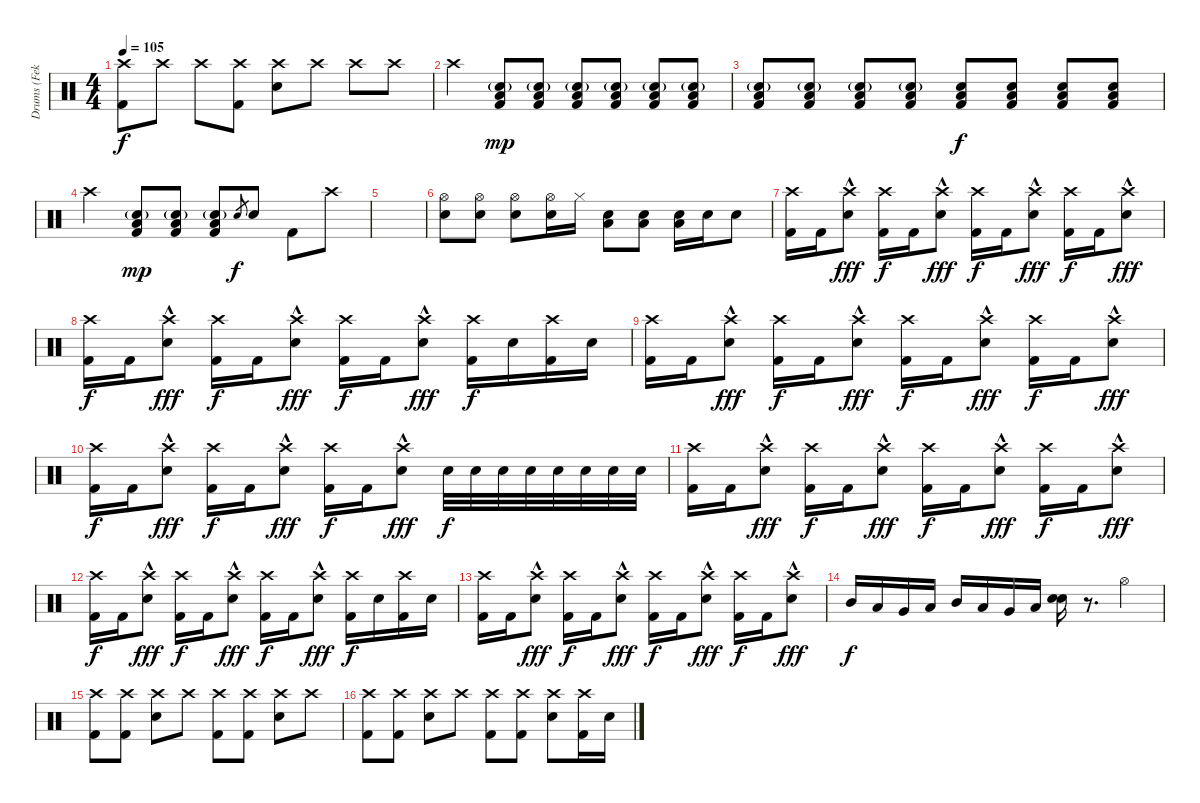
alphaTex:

\track ("Drums (Fekete 'Feka' Balázs)" "Drums (Fek") {instrument percussion}
\staff {score}
\articulation defaults
\ts (4 4)
\tempo 105
\clef neutral
\ks c
("Crash high (hit)" "Kick (hit) 2").8{dy f} "Crash high (hit)".8 "Crash high (hit)".8 ("Crash high (hit)" "Kick (hit) 2").8 ("Crash high (hit)" "Snare (hit) 2").8 "Crash high (hit)".8 "Crash high (hit)".8 "Crash high (hit)".8 |
"Crash high (hit)".4 ("Low Tom (hit)" "Snare (hit) 2"{g} "Kick (hit) 2").8{dy mp} ("Low Tom (hit)" "Snare (hit) 2"{g} "Kick (hit) 2").8 ("Low Tom (hit)" "Snare (hit) 2"{g} "Kick (hit) 2").8 ("Low Tom (hit)" "Snare (hit) 2"{g} "Kick (hit) 2").8 ("Low Tom (hit)" "Snare (hit) 2"{g} "Kick (hit) 2").8 ("Low Tom (hit)" "Snare (hit) 2"{g} "Kick (hit) 2").8 |
("Low Tom (hit)" "Snare (hit) 2"{g} "Kick (hit) 2").8 ("Low Tom (hit)" "Snare (hit) 2"{g} "Kick (hit) 2").8 ("Low Tom (hit)" "Snare (hit) 2"{g} "Kick (hit) 2").8 ("Low Tom (hit)" "Snare (hit) 2"{g} "Kick (hit) 2").8 ("Low Tom (hit)" "Snare (hit) 2" "Kick (hit) 2").8{dy f} ("Low Tom (hit)" "Snare (hit) 2" "Kick (hit) 2").8 ("Low Tom (hit)" "Snare (hit) 2" "Kick (hit) 2").8 ("Low Tom (hit)" "Snare (hit) 2" "Kick (hit) 2").8 |
"Crash high (hit)".4 ("Low Tom (hit)" "Snare (hit) 2"{g} "Kick (hit) 2").8{dy mp} ("Low Tom (hit)" "Snare (hit) 2"{g} "Kick (hit) 2").8 ("Low Tom (hit)" "Snare (hit) 2"{g} "Kick (hit) 2").8 "Snare (hit) 2".8{gr dy f} "Snare (hit) 2".8 "Kick (hit) 2".8 "Crash high (hit)".8 |
|
("Hi-Hat (open)" "Snare (hit) 2").8 ("Hi-Hat (open)" "Snare (hit) 2").8 ("Hi-Hat (open)" "Snare (hit) 2").8 ("Hi-Hat (open)" "Snare (hit) 2").16 "Hi-Hat (closed)".16 ("Low Tom (hit)" "Snare (hit) 2").8 ("Low Tom (hit)" "Snare (hit) 2").8 ("Low Tom (hit)" "Snare (hit) 2").16 "Snare (hit) 2".16 "Snare (hit) 2".8 |
("Crash high (hit)" "Kick (hit) 2").16 "Kick (hit) 2".16 ("Crash high (hit)" "Snare (hit) 2"{hac}).8{dy fff} ("Crash high (hit)" "Kick (hit) 2").16{dy f} "Kick (hit) 2".16 ("Crash high (hit)" "Snare (hit) 2"{hac}).8{dy fff} ("Crash high (hit)" "Kick (hit) 2").16{dy f} "Kick (hit) 2".16 ("Crash high (hit)" "Snare (hit) 2"{hac}).8{dy fff} ("Crash high (hit)" "Kick (hit) 2").16{dy f} "Kick (hit) 2".16 ("Crash high (hit)" "Snare (hit) 2"{hac}).8{dy fff} |
("Crash high (hit)" "Kick (hit) 2").16{dy f} "Kick (hit) 2".16 ("Crash high (hit)" "Snare (hit) 2"{hac}).8{dy fff} ("Crash high (hit)" "Kick (hit) 2").16{dy f} "Kick (hit) 2".16 ("Crash high (hit)" "Snare (hit) 2"{hac}).8{dy fff} ("Crash high (hit)" "Kick (hit) 2").16{dy f} "Kick (hit) 2".16 ("Crash high (hit)" "Snare (hit) 2"{hac}).8{dy fff} ("Crash high (hit)" "Kick (hit) 2").16{dy f} "Snare (hit) 2".16 ("Crash high (hit)" "Kick (hit) 2").16 "Snare (hit) 2".16 |
("Crash high (hit)" "Kick (hit) 2").16 "Kick (hit) 2".16 ("Crash high (hit)" "Snare (hit) 2"{hac}).8{dy fff} ("Crash high (hit)" "Kick (hit) 2").16{dy f} "Kick (hit) 2".16 ("Crash high (hit)" "Snare (hit) 2"{hac}).8{dy fff} ("Crash high (hit)" "Kick (hit) 2").16{dy f} "Kick (hit) 2".16 ("Crash high (hit)" "Snare (hit) 2"{hac}).8{dy fff} ("Crash high (hit)" "Kick (hit) 2").16{dy f} "Kick (hit) 2".16 ("Crash high (hit)" "Snare (hit) 2"{hac}).8{dy fff} |
("Crash high (hit)" "Kick (hit) 2").16{dy f} "Kick (hit) 2".16 ("Crash high (hit)" "Snare (hit) 2"{hac}).8{dy fff} ("Crash high (hit)" "Kick (hit) 2").16{dy f} "Kick (hit) 2".16 ("Crash high (hit)" "Snare (hit) 2"{hac}).8{dy fff} ("Crash high (hit)" "Kick (hit) 2").16{dy f} "Kick (hit) 2".16 ("Crash high (hit)" "Snare (hit) 2"{hac}).8{dy fff} "Snare (hit) 2".32{dy f} "Snare (hit) 2".32 "Snare (hit) 2".32 "Snare (hit) 2".32 "Snare (hit) 2".32 "Snare (hit) 2".32 "Snare (hit) 2".32 "Snare (hit) 2".32 |
("Crash high (hit)" "Kick (hit) 2").16 "Kick (hit) 2".16 ("Crash high (hit)" "Snare (hit) 2"{hac}).8{dy fff} ("Crash high (hit)" "Kick (hit) 2").16{dy f} "Kick (hit) 2".16 ("Crash high (hit)" "Snare (hit) 2"{hac}).8{dy fff} ("Crash high (hit)" "Kick (hit) 2").16{dy f} "Kick (hit) 2".16 ("Crash high (hit)" "Snare (hit) 2"{hac}).8{dy fff} ("Crash high (hit)" "Kick (hit) 2").16{dy f} "Kick (hit) 2".16 ("Crash high (hit)" "Snare (hit) 2"{hac}).8{dy fff} |
("Crash high (hit)" "Kick (hit) 2").16{dy f} "Kick (hit) 2".16 ("Crash high (hit)" "Snare (hit) 2"{hac}).8{dy fff} ("Crash high (hit)" "Kick (hit) 2").16{dy f} "Kick (hit) 2".16 ("Crash high (hit)" "Snare (hit) 2"{hac}).8{dy fff} ("Crash high (hit)" "Kick (hit) 2").16{dy f} "Kick (hit) 2".16 ("Crash high (hit)" "Snare (hit) 2"{hac}).8{dy fff} ("Crash high (hit)" "Kick (hit) 2").16{dy f} "Snare (hit) 2".16 ("Crash high (hit)" "Kick (hit) 2").16 "Snare (hit) 2".16 |
("Crash high (hit)" "Kick (hit) 2").16 "Kick (hit) 2".16 ("Crash high (hit)" "Snare (hit) 2"{hac}).8{dy fff} ("Crash high (hit)" "Kick (hit) 2").16{dy f} "Kick (hit) 2".16 ("Crash high (hit)" "Snare (hit) 2"{hac}).8{dy fff} ("Crash high (hit)" "Kick (hit) 2").16{dy f} "Kick (hit) 2".16 ("Crash high (hit)" "Snare (hit) 2"{hac}).8{dy fff} ("Crash high (hit)" "Kick (hit) 2").16{dy f} "Kick (hit) 2".16 ("Crash high (hit)" "Snare (hit) 2"{hac}).8{dy fff} |
"Mid Tom (hit)".16{dy f} "Low Tom (hit)".16 "Very Low Tom (hit)".16 "Low Floor Tom (hit)".16 "Mid Tom (hit)".16 "Low Tom (hit)".16 "Very Low Tom (hit)".16 "Low Floor Tom (hit)".16 ("Snare (hit) 2" "Snare (hit) 2").16 r.8{d} "Hi-Hat (open)".4 |
("Crash high (hit)" "Kick (hit) 2").8 ("Crash high (hit)" "Kick (hit) 2").8 ("Crash high (hit)" "Snare (hit) 2").8 "Crash high (hit)".8 ("Crash high (hit)" "Kick (hit) 2").8 ("Crash high (hit)" "Kick (hit) 2").8 ("Crash high (hit)" "Snare (hit) 2").8 "Crash high (hit)".8 |
("Crash high (hit)" "Kick (hit) 2").8 ("Crash high (hit)" "Kick (hit) 2").8 ("Crash high (hit)" "Snare (hit) 2").8 "Crash high (hit)".8 ("Crash high (hit)" "Kick (hit) 2").8 ("Crash high (hit)" "Kick (hit) 2").8 ("Crash high (hit)" "Snare (hit) 2").8 ("Crash high (hit)" "Kick (hit) 2").16 "Snare (hit) 2".16
